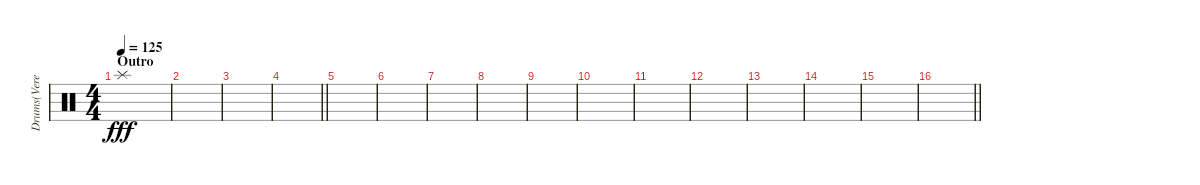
\track ("Drums(Vereinfacht) - Daniel" "Drums(Vere") {instrument percussion}
\staff {score}
\articulation defaults
\ts (4 4)
\section ("" "Outro")
\tempo 125
\clef neutral
\ks c "Splash (hit)".1{dy fff}
|
|
|
\barLineRight lightlight
|
|
|
|
|
|
|
|
|
|
|
|
\barLineRight lightlight
